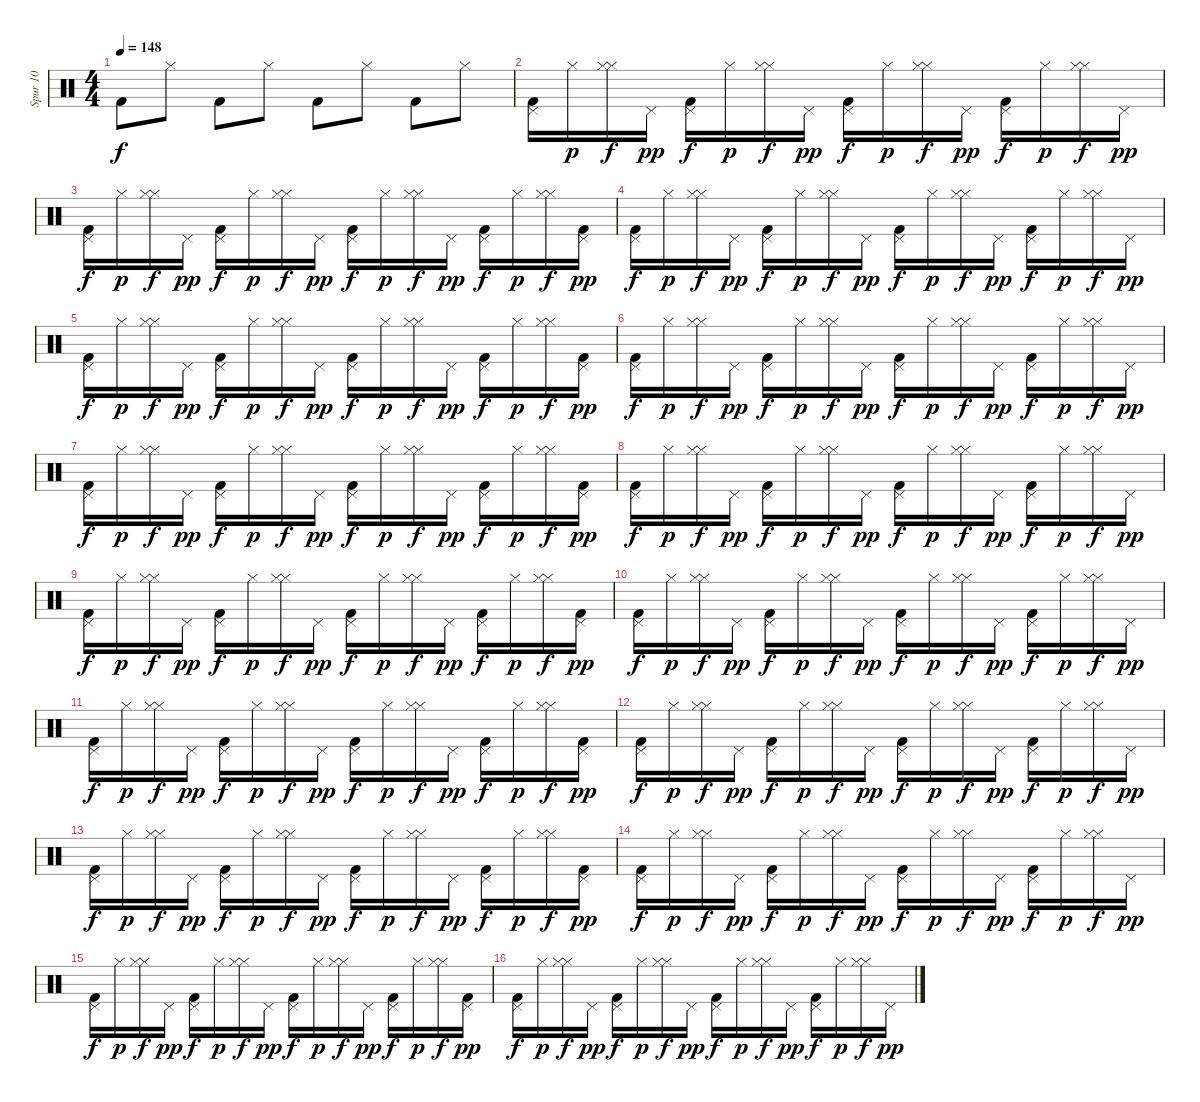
\track ("Spur 10" "Spur 10") {instrument percussion}
\staff {score}
\articulation defaults
\ts (4 4)
\tempo 148
\clef neutral
\ks c "Kick (hit) 2".8{dy f} "Hi-Hat (closed)".8 "Kick (hit) 2".8 "Hi-Hat (closed)".8 "Kick (hit) 2".8 "Hi-Hat (closed)".8 "Kick (hit) 2".8 "Hi-Hat (closed)".8
|
("Pedal Hi-Hat (hit)" "Kick (hit) 2").16 "Hi-Hat (closed)".16{dy p} ("Hi-Hat (closed)" "Hi-Hat (closed)").16{dy f} "Pedal Hi-Hat (hit)".16{dy pp} ("Pedal Hi-Hat (hit)" "Kick (hit) 2").16{dy f} "Hi-Hat (closed)".16{dy p} ("Hi-Hat (closed)" "Hi-Hat (closed)").16{dy f} "Pedal Hi-Hat (hit)".16{dy pp} ("Pedal Hi-Hat (hit)" "Kick (hit) 2").16{dy f} "Hi-Hat (closed)".16{dy p} ("Hi-Hat (closed)" "Hi-Hat (closed)").16{dy f} "Pedal Hi-Hat (hit)".16{dy pp} ("Pedal Hi-Hat (hit)" "Kick (hit) 2").16{dy f} "Hi-Hat (closed)".16{dy p} ("Hi-Hat (closed)" "Hi-Hat (closed)").16{dy f} "Pedal Hi-Hat (hit)".16{dy pp} |
("Pedal Hi-Hat (hit)" "Kick (hit) 2").16{dy f} "Hi-Hat (closed)".16{dy p} ("Hi-Hat (closed)" "Hi-Hat (closed)").16{dy f} "Pedal Hi-Hat (hit)".16{dy pp} ("Pedal Hi-Hat (hit)" "Kick (hit) 2").16{dy f} "Hi-Hat (closed)".16{dy p} ("Hi-Hat (closed)" "Hi-Hat (closed)").16{dy f} "Pedal Hi-Hat (hit)".16{dy pp} ("Pedal Hi-Hat (hit)" "Kick (hit) 2").16{dy f} "Hi-Hat (closed)".16{dy p} ("Hi-Hat (closed)" "Hi-Hat (closed)").16{dy f} "Pedal Hi-Hat (hit)".16{dy pp} ("Pedal Hi-Hat (hit)" "Kick (hit) 2").16{dy f} "Hi-Hat (closed)".16{dy p} ("Hi-Hat (closed)" "Hi-Hat (closed)").16{dy f} ("Kick (hit) 2" "Pedal Hi-Hat (hit)").16{dy pp} |
("Pedal Hi-Hat (hit)" "Kick (hit) 2").16{dy f} "Hi-Hat (closed)".16{dy p} ("Hi-Hat (closed)" "Hi-Hat (closed)").16{dy f} "Pedal Hi-Hat (hit)".16{dy pp} ("Pedal Hi-Hat (hit)" "Kick (hit) 2").16{dy f} "Hi-Hat (closed)".16{dy p} ("Hi-Hat (closed)" "Hi-Hat (closed)").16{dy f} "Pedal Hi-Hat (hit)".16{dy pp} ("Pedal Hi-Hat (hit)" "Kick (hit) 2").16{dy f} "Hi-Hat (closed)".16{dy p} ("Hi-Hat (closed)" "Hi-Hat (closed)").16{dy f} "Pedal Hi-Hat (hit)".16{dy pp} ("Pedal Hi-Hat (hit)" "Kick (hit) 2").16{dy f} "Hi-Hat (closed)".16{dy p} ("Hi-Hat (closed)" "Hi-Hat (closed)").16{dy f} "Pedal Hi-Hat (hit)".16{dy pp} |
("Pedal Hi-Hat (hit)" "Kick (hit) 2").16{dy f} "Hi-Hat (closed)".16{dy p} ("Hi-Hat (closed)" "Hi-Hat (closed)").16{dy f} "Pedal Hi-Hat (hit)".16{dy pp} ("Pedal Hi-Hat (hit)" "Kick (hit) 2").16{dy f} "Hi-Hat (closed)".16{dy p} ("Hi-Hat (closed)" "Hi-Hat (closed)").16{dy f} "Pedal Hi-Hat (hit)".16{dy pp} ("Pedal Hi-Hat (hit)" "Kick (hit) 2").16{dy f} "Hi-Hat (closed)".16{dy p} ("Hi-Hat (closed)" "Hi-Hat (closed)").16{dy f} "Pedal Hi-Hat (hit)".16{dy pp} ("Pedal Hi-Hat (hit)" "Kick (hit) 2").16{dy f} "Hi-Hat (closed)".16{dy p} ("Hi-Hat (closed)" "Hi-Hat (closed)").16{dy f} ("Kick (hit) 2" "Pedal Hi-Hat (hit)").16{dy pp} |
("Pedal Hi-Hat (hit)" "Kick (hit) 2").16{dy f} "Hi-Hat (closed)".16{dy p} ("Hi-Hat (closed)" "Hi-Hat (closed)").16{dy f} "Pedal Hi-Hat (hit)".16{dy pp} ("Pedal Hi-Hat (hit)" "Kick (hit) 2").16{dy f} "Hi-Hat (closed)".16{dy p} ("Hi-Hat (closed)" "Hi-Hat (closed)").16{dy f} "Pedal Hi-Hat (hit)".16{dy pp} ("Pedal Hi-Hat (hit)" "Kick (hit) 2").16{dy f} "Hi-Hat (closed)".16{dy p} ("Hi-Hat (closed)" "Hi-Hat (closed)").16{dy f} "Pedal Hi-Hat (hit)".16{dy pp} ("Pedal Hi-Hat (hit)" "Kick (hit) 2").16{dy f} "Hi-Hat (closed)".16{dy p} ("Hi-Hat (closed)" "Hi-Hat (closed)").16{dy f} "Pedal Hi-Hat (hit)".16{dy pp} |
("Pedal Hi-Hat (hit)" "Kick (hit) 2").16{dy f} "Hi-Hat (closed)".16{dy p} ("Hi-Hat (closed)" "Hi-Hat (closed)").16{dy f} "Pedal Hi-Hat (hit)".16{dy pp} ("Pedal Hi-Hat (hit)" "Kick (hit) 2").16{dy f} "Hi-Hat (closed)".16{dy p} ("Hi-Hat (closed)" "Hi-Hat (closed)").16{dy f} "Pedal Hi-Hat (hit)".16{dy pp} ("Pedal Hi-Hat (hit)" "Kick (hit) 2").16{dy f} "Hi-Hat (closed)".16{dy p} ("Hi-Hat (closed)" "Hi-Hat (closed)").16{dy f} "Pedal Hi-Hat (hit)".16{dy pp} ("Pedal Hi-Hat (hit)" "Kick (hit) 2").16{dy f} "Hi-Hat (closed)".16{dy p} ("Hi-Hat (closed)" "Hi-Hat (closed)").16{dy f} ("Kick (hit) 2" "Pedal Hi-Hat (hit)").16{dy pp} |
("Pedal Hi-Hat (hit)" "Kick (hit) 2").16{dy f} "Hi-Hat (closed)".16{dy p} ("Hi-Hat (closed)" "Hi-Hat (closed)").16{dy f} "Pedal Hi-Hat (hit)".16{dy pp} ("Pedal Hi-Hat (hit)" "Kick (hit) 2").16{dy f} "Hi-Hat (closed)".16{dy p} ("Hi-Hat (closed)" "Hi-Hat (closed)").16{dy f} "Pedal Hi-Hat (hit)".16{dy pp} ("Pedal Hi-Hat (hit)" "Kick (hit) 2").16{dy f} "Hi-Hat (closed)".16{dy p} ("Hi-Hat (closed)" "Hi-Hat (closed)").16{dy f} "Pedal Hi-Hat (hit)".16{dy pp} ("Pedal Hi-Hat (hit)" "Kick (hit) 2").16{dy f} "Hi-Hat (closed)".16{dy p} ("Hi-Hat (closed)" "Hi-Hat (closed)").16{dy f} "Pedal Hi-Hat (hit)".16{dy pp} |
("Pedal Hi-Hat (hit)" "Kick (hit) 2").16{dy f} "Hi-Hat (closed)".16{dy p} ("Hi-Hat (closed)" "Hi-Hat (closed)").16{dy f} "Pedal Hi-Hat (hit)".16{dy pp} ("Pedal Hi-Hat (hit)" "Kick (hit) 2").16{dy f} "Hi-Hat (closed)".16{dy p} ("Hi-Hat (closed)" "Hi-Hat (closed)").16{dy f} "Pedal Hi-Hat (hit)".16{dy pp} ("Pedal Hi-Hat (hit)" "Kick (hit) 2").16{dy f} "Hi-Hat (closed)".16{dy p} ("Hi-Hat (closed)" "Hi-Hat (closed)").16{dy f} "Pedal Hi-Hat (hit)".16{dy pp} ("Pedal Hi-Hat (hit)" "Kick (hit) 2").16{dy f} "Hi-Hat (closed)".16{dy p} ("Hi-Hat (closed)" "Hi-Hat (closed)").16{dy f} ("Kick (hit) 2" "Pedal Hi-Hat (hit)").16{dy pp} |
("Pedal Hi-Hat (hit)" "Kick (hit) 2").16{dy f} "Hi-Hat (closed)".16{dy p} ("Hi-Hat (closed)" "Hi-Hat (closed)").16{dy f} "Pedal Hi-Hat (hit)".16{dy pp} ("Pedal Hi-Hat (hit)" "Kick (hit) 2").16{dy f} "Hi-Hat (closed)".16{dy p} ("Hi-Hat (closed)" "Hi-Hat (closed)").16{dy f} "Pedal Hi-Hat (hit)".16{dy pp} ("Pedal Hi-Hat (hit)" "Kick (hit) 2").16{dy f} "Hi-Hat (closed)".16{dy p} ("Hi-Hat (closed)" "Hi-Hat (closed)").16{dy f} "Pedal Hi-Hat (hit)".16{dy pp} ("Pedal Hi-Hat (hit)" "Kick (hit) 2").16{dy f} "Hi-Hat (closed)".16{dy p} ("Hi-Hat (closed)" "Hi-Hat (closed)").16{dy f} "Pedal Hi-Hat (hit)".16{dy pp} |
("Pedal Hi-Hat (hit)" "Kick (hit) 2").16{dy f} "Hi-Hat (closed)".16{dy p} ("Hi-Hat (closed)" "Hi-Hat (closed)").16{dy f} "Pedal Hi-Hat (hit)".16{dy pp} ("Pedal Hi-Hat (hit)" "Kick (hit) 2").16{dy f} "Hi-Hat (closed)".16{dy p} ("Hi-Hat (closed)" "Hi-Hat (closed)").16{dy f} "Pedal Hi-Hat (hit)".16{dy pp} ("Pedal Hi-Hat (hit)" "Kick (hit) 2").16{dy f} "Hi-Hat (closed)".16{dy p} ("Hi-Hat (closed)" "Hi-Hat (closed)").16{dy f} "Pedal Hi-Hat (hit)".16{dy pp} ("Pedal Hi-Hat (hit)" "Kick (hit) 2").16{dy f} "Hi-Hat (closed)".16{dy p} ("Hi-Hat (closed)" "Hi-Hat (closed)").16{dy f} ("Kick (hit) 2" "Pedal Hi-Hat (hit)").16{dy pp} |
("Pedal Hi-Hat (hit)" "Kick (hit) 2").16{dy f} "Hi-Hat (closed)".16{dy p} ("Hi-Hat (closed)" "Hi-Hat (closed)").16{dy f} "Pedal Hi-Hat (hit)".16{dy pp} ("Pedal Hi-Hat (hit)" "Kick (hit) 2").16{dy f} "Hi-Hat (closed)".16{dy p} ("Hi-Hat (closed)" "Hi-Hat (closed)").16{dy f} "Pedal Hi-Hat (hit)".16{dy pp} ("Pedal Hi-Hat (hit)" "Kick (hit) 2").16{dy f} "Hi-Hat (closed)".16{dy p} ("Hi-Hat (closed)" "Hi-Hat (closed)").16{dy f} "Pedal Hi-Hat (hit)".16{dy pp} ("Pedal Hi-Hat (hit)" "Kick (hit) 2").16{dy f} "Hi-Hat (closed)".16{dy p} ("Hi-Hat (closed)" "Hi-Hat (closed)").16{dy f} "Pedal Hi-Hat (hit)".16{dy pp} |
("Pedal Hi-Hat (hit)" "Kick (hit) 2").16{dy f} "Hi-Hat (closed)".16{dy p} ("Hi-Hat (closed)" "Hi-Hat (closed)").16{dy f} "Pedal Hi-Hat (hit)".16{dy pp} ("Pedal Hi-Hat (hit)" "Kick (hit) 2").16{dy f} "Hi-Hat (closed)".16{dy p} ("Hi-Hat (closed)" "Hi-Hat (closed)").16{dy f} "Pedal Hi-Hat (hit)".16{dy pp} ("Pedal Hi-Hat (hit)" "Kick (hit) 2").16{dy f} "Hi-Hat (closed)".16{dy p} ("Hi-Hat (closed)" "Hi-Hat (closed)").16{dy f} "Pedal Hi-Hat (hit)".16{dy pp} ("Pedal Hi-Hat (hit)" "Kick (hit) 2").16{dy f} "Hi-Hat (closed)".16{dy p} ("Hi-Hat (closed)" "Hi-Hat (closed)").16{dy f} ("Kick (hit) 2" "Pedal Hi-Hat (hit)").16{dy pp} |
("Pedal Hi-Hat (hit)" "Kick (hit) 2").16{dy f} "Hi-Hat (closed)".16{dy p} ("Hi-Hat (closed)" "Hi-Hat (closed)").16{dy f} "Pedal Hi-Hat (hit)".16{dy pp} ("Pedal Hi-Hat (hit)" "Kick (hit) 2").16{dy f} "Hi-Hat (closed)".16{dy p} ("Hi-Hat (closed)" "Hi-Hat (closed)").16{dy f} "Pedal Hi-Hat (hit)".16{dy pp} ("Pedal Hi-Hat (hit)" "Kick (hit) 2").16{dy f} "Hi-Hat (closed)".16{dy p} ("Hi-Hat (closed)" "Hi-Hat (closed)").16{dy f} "Pedal Hi-Hat (hit)".16{dy pp} ("Pedal Hi-Hat (hit)" "Kick (hit) 2").16{dy f} "Hi-Hat (closed)".16{dy p} ("Hi-Hat (closed)" "Hi-Hat (closed)").16{dy f} "Pedal Hi-Hat (hit)".16{dy pp} |
("Pedal Hi-Hat (hit)" "Kick (hit) 2").16{dy f} "Hi-Hat (closed)".16{dy p} ("Hi-Hat (closed)" "Hi-Hat (closed)").16{dy f} "Pedal Hi-Hat (hit)".16{dy pp} ("Pedal Hi-Hat (hit)" "Kick (hit) 2").16{dy f} "Hi-Hat (closed)".16{dy p} ("Hi-Hat (closed)" "Hi-Hat (closed)").16{dy f} "Pedal Hi-Hat (hit)".16{dy pp} ("Pedal Hi-Hat (hit)" "Kick (hit) 2").16{dy f} "Hi-Hat (closed)".16{dy p} ("Hi-Hat (closed)" "Hi-Hat (closed)").16{dy f} "Pedal Hi-Hat (hit)".16{dy pp} ("Pedal Hi-Hat (hit)" "Kick (hit) 2").16{dy f} "Hi-Hat (closed)".16{dy p} ("Hi-Hat (closed)" "Hi-Hat (closed)").16{dy f} ("Kick (hit) 2" "Pedal Hi-Hat (hit)").16{dy pp} |
("Pedal Hi-Hat (hit)" "Kick (hit) 2").16{dy f} "Hi-Hat (closed)".16{dy p} ("Hi-Hat (closed)" "Hi-Hat (closed)").16{dy f} "Pedal Hi-Hat (hit)".16{dy pp} ("Pedal Hi-Hat (hit)" "Kick (hit) 2").16{dy f} "Hi-Hat (closed)".16{dy p} ("Hi-Hat (closed)" "Hi-Hat (closed)").16{dy f} "Pedal Hi-Hat (hit)".16{dy pp} ("Pedal Hi-Hat (hit)" "Kick (hit) 2").16{dy f} "Hi-Hat (closed)".16{dy p} ("Hi-Hat (closed)" "Hi-Hat (closed)").16{dy f} "Pedal Hi-Hat (hit)".16{dy pp} ("Pedal Hi-Hat (hit)" "Kick (hit) 2").16{dy f} "Hi-Hat (closed)".16{dy p} ("Hi-Hat (closed)" "Hi-Hat (closed)").16{dy f} "Pedal Hi-Hat (hit)".16{dy pp}
